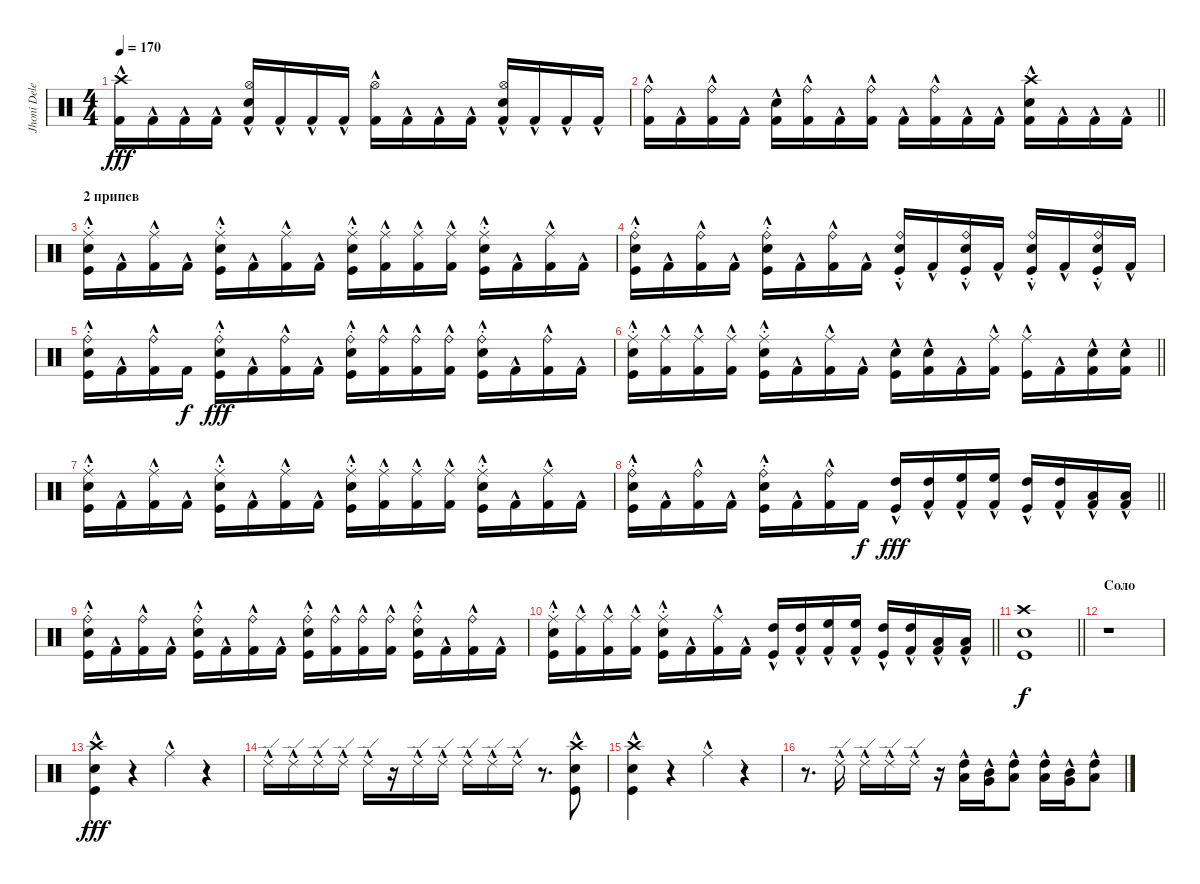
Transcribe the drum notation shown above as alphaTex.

\track ("Jhoni Delenger" "Jhoni Dele") {instrument percussion}
\staff {score}
\articulation defaults
\ts (4 4)
\tempo 170
\clef neutral
\ks c
("Crash high (hit)" "Kick (hit) 2"{hac}).16{dy fff} "Kick (hit) 2"{hac}.16 "Kick (hit) 2"{hac}.16 "Kick (hit) 2"{hac}.16 ("Hi-Hat (open)" "Snare (hit) 2" "Kick (hit) 2"{hac}).16 "Kick (hit) 2"{hac}.16 "Kick (hit) 2"{hac}.16 "Kick (hit) 2"{hac}.16 ("Hi-Hat (open)" "Kick (hit) 2"{hac}).16 "Kick (hit) 2"{hac}.16 "Kick (hit) 2"{hac}.16 "Kick (hit) 2"{hac}.16 ("Hi-Hat (open)" "Snare (hit) 2" "Kick (hit) 2"{hac}).16 "Kick (hit) 2"{hac}.16 "Kick (hit) 2"{hac}.16 "Kick (hit) 2"{hac}.16 |
\barLineRight lightlight
("Kick (hit) 2"{hac} "Ride (bell)"{hac}).16 "Kick (hit) 2"{hac}.16 ("Kick (hit) 2"{hac} "Ride (bell)"{hac}).16 "Kick (hit) 2"{hac}.16 ("Snare (hit) 2" "Kick (hit) 2"{hac}).16 ("Ride (bell)"{hac} "Kick (hit) 2"{hac}).16 "Kick (hit) 2"{hac}.16 ("Ride (bell)"{hac} "Kick (hit) 2"{hac}).16 "Kick (hit) 2"{hac}.16 ("Ride (bell)"{hac} "Kick (hit) 2"{hac}).16 "Kick (hit) 2"{hac}.16 "Kick (hit) 2"{hac}.16 ("Crash high (hit)" "Snare (hit) 2" "Kick (hit) 2"{hac}).16 "Kick (hit) 2"{hac}.16 "Kick (hit) 2"{hac}.16 "Kick (hit) 2"{hac}.16 |
\section ("" "2 припев")
("Snare (hit) 2"{st} "Ride (middle)"{hac} "Kick (hit)"{hac}).16 "Kick (hit) 2"{hac}.16 ("Kick (hit) 2"{hac} "Ride (middle)"{hac}).16 "Kick (hit) 2"{hac}.16 ("Snare (hit) 2"{st} "Ride (middle)"{hac} "Kick (hit)"{hac}).16 "Kick (hit) 2"{hac}.16 ("Kick (hit) 2"{hac} "Ride (middle)"{hac}).16 "Kick (hit) 2"{hac}.16 ("Snare (hit) 2"{st} "Ride (middle)"{hac} "Kick (hit)"{hac}).16 ("Kick (hit) 2"{hac} "Ride (middle)"{hac}).16 ("Kick (hit) 2"{hac} "Ride (middle)"{hac}).16 ("Kick (hit) 2"{hac} "Ride (middle)"{hac}).16 ("Snare (hit) 2"{st} "Ride (middle)"{hac} "Kick (hit)"{hac}).16 "Kick (hit) 2"{hac}.16 ("Kick (hit) 2"{hac} "Ride (middle)"{hac}).16 "Kick (hit) 2"{hac}.16 |
("Snare (hit) 2"{st} "Ride (bell)"{hac} "Kick (hit)"{hac}).16 "Kick (hit) 2"{hac}.16 ("Kick (hit) 2"{hac} "Ride (bell)"{hac}).16 "Kick (hit) 2"{hac}.16 ("Snare (hit) 2"{st} "Ride (bell)"{hac} "Kick (hit)"{hac}).16 "Kick (hit) 2"{hac}.16 ("Kick (hit) 2"{hac} "Ride (bell)"{hac}).16 "Kick (hit) 2"{hac}.16 ("Snare (hit) 2"{st} "Ride (bell)"{hac} "Kick (hit)"{hac}).16 "Kick (hit) 2"{hac}.16 ("Snare (hit) 2"{st} "Ride (bell)"{hac} "Kick (hit)"{hac}).16 "Kick (hit) 2"{hac}.16 ("Snare (hit) 2"{st} "Ride (bell)"{hac} "Kick (hit)"{hac}).16 "Kick (hit) 2"{hac}.16 ("Snare (hit) 2"{st} "Ride (bell)"{hac} "Kick (hit)"{hac}).16 "Kick (hit) 2"{hac}.16 |
("Snare (hit) 2"{st} "Ride (bell)"{hac} "Kick (hit)"{hac}).16 "Kick (hit) 2"{hac}.16 ("Kick (hit) 2"{hac} "Ride (bell)"{hac}).16 "Kick (hit) 2".16{dy f} ("Snare (hit) 2"{st} "Ride (bell)"{hac} "Kick (hit)"{hac}).16{dy fff} "Kick (hit) 2"{hac}.16 ("Kick (hit) 2"{hac} "Ride (bell)"{hac}).16 "Kick (hit) 2"{hac}.16 ("Snare (hit) 2"{st} "Ride (bell)"{hac} "Kick (hit)"{hac}).16 ("Kick (hit) 2"{hac} "Ride (bell)"{hac}).16 ("Kick (hit) 2"{hac} "Ride (bell)"{hac}).16 ("Kick (hit) 2"{hac} "Ride (bell)"{hac}).16 ("Snare (hit) 2"{st} "Ride (bell)"{hac} "Kick (hit)"{hac}).16 "Kick (hit) 2"{hac}.16 ("Kick (hit) 2"{hac} "Ride (bell)"{hac}).16 "Kick (hit) 2"{hac}.16 |
\barLineRight lightlight
("Snare (hit) 2"{st} "Ride (middle)"{hac} "Kick (hit)"{hac}).16 ("Kick (hit) 2"{hac} "Ride (middle)"{hac}).16 ("Kick (hit) 2"{hac} "Ride (middle)"{hac}).16 ("Kick (hit) 2"{hac} "Ride (middle)"{hac}).16 ("Snare (hit) 2"{st} "Ride (middle)"{hac} "Kick (hit)"{hac}).16 "Kick (hit) 2"{hac}.16 ("Kick (hit) 2"{hac} "Ride (middle)"{hac}).16 "Kick (hit) 2"{hac}.16 ("Snare (hit) 2" "Kick (hit)"{hac}).16 ("Kick (hit) 2"{hac} "Snare (hit) 2").16 "Kick (hit) 2"{hac}.16 ("Kick (hit) 2"{hac} "Ride (middle)"{hac}).16 ("Ride (middle)"{hac} "Kick (hit)"{hac}).16 "Kick (hit) 2"{hac}.16 ("Kick (hit) 2"{hac} "Snare (hit) 2").16 ("Kick (hit) 2"{hac} "Snare (hit) 2").16 |
("Snare (hit) 2"{st} "Ride (middle)"{hac} "Kick (hit)"{hac}).16 "Kick (hit) 2"{hac}.16 ("Kick (hit) 2"{hac} "Ride (middle)"{hac}).16 "Kick (hit) 2"{hac}.16 ("Snare (hit) 2"{st} "Ride (middle)"{hac} "Kick (hit)"{hac}).16 "Kick (hit) 2"{hac}.16 ("Kick (hit) 2"{hac} "Ride (middle)"{hac}).16 "Kick (hit) 2"{hac}.16 ("Snare (hit) 2"{st} "Ride (middle)"{hac} "Kick (hit)"{hac}).16 ("Kick (hit) 2"{hac} "Ride (middle)"{hac}).16 ("Kick (hit) 2"{hac} "Ride (middle)"{hac}).16 ("Kick (hit) 2"{hac} "Ride (middle)"{hac}).16 ("Snare (hit) 2"{st} "Ride (middle)"{hac} "Kick (hit)"{hac}).16 "Kick (hit) 2"{hac}.16 ("Kick (hit) 2"{hac} "Ride (middle)"{hac}).16 "Kick (hit) 2"{hac}.16 |
\barLineRight lightlight
("Snare (hit) 2"{st} "Ride (bell)"{hac} "Kick (hit)"{hac}).16 "Kick (hit) 2"{hac}.16 ("Kick (hit) 2"{hac} "Ride (bell)"{hac}).16 "Kick (hit) 2"{hac}.16 ("Snare (hit) 2"{st} "Ride (bell)"{hac} "Kick (hit)"{hac}).16 "Kick (hit) 2"{hac}.16 ("Kick (hit) 2"{hac} "Ride (bell)"{hac}).16 "Kick (hit) 2".16{dy f} ("High Tom (hit)"{hac} "Kick (hit)"{hac}).16{dy fff} ("Kick (hit) 2"{hac} "High Tom (hit)"{hac}).16 ("Kick (hit) 2"{hac} "High Floor Tom (hit)"{hac}).16 ("Kick (hit) 2"{hac} "High Floor Tom (hit)"{hac}).16 ("High Tom (hit)"{hac} "Kick (hit)"{hac}).16 ("Kick (hit) 2"{hac} "High Tom (hit)"{hac}).16 ("Kick (hit) 2"{hac} "Low Tom (hit)"{hac}).16 ("Kick (hit) 2"{hac} "Low Tom (hit)"{hac}).16 |
("Snare (hit) 2"{st} "Ride (bell)"{hac} "Kick (hit)"{hac}).16 "Kick (hit) 2"{hac}.16 ("Kick (hit) 2"{hac} "Ride (bell)"{hac}).16 "Kick (hit) 2"{hac}.16 ("Snare (hit) 2"{st} "Ride (bell)"{hac} "Kick (hit)"{hac}).16 "Kick (hit) 2"{hac}.16 ("Kick (hit) 2"{hac} "Ride (bell)"{hac}).16 "Kick (hit) 2"{hac}.16 ("Snare (hit) 2"{st} "Ride (bell)"{hac} "Kick (hit)"{hac}).16 ("Kick (hit) 2"{hac} "Ride (bell)"{hac}).16 ("Kick (hit) 2"{hac} "Ride (bell)"{hac}).16 ("Kick (hit) 2"{hac} "Ride (bell)"{hac}).16 ("Snare (hit) 2"{st} "Ride (bell)"{hac} "Kick (hit)"{hac}).16 "Kick (hit) 2"{hac}.16 ("Kick (hit) 2"{hac} "Ride (bell)"{hac}).16 "Kick (hit) 2"{hac}.16 |
\barLineRight lightlight
("Snare (hit) 2"{st} "Ride (middle)"{hac} "Kick (hit)"{hac}).16 ("Kick (hit) 2"{hac} "Ride (middle)"{hac}).16 ("Kick (hit) 2"{hac} "Ride (middle)"{hac}).16 ("Kick (hit) 2"{hac} "Ride (middle)"{hac}).16 ("Snare (hit) 2"{st} "Ride (middle)"{hac} "Kick (hit)"{hac}).16 "Kick (hit) 2"{hac}.16 ("Kick (hit) 2"{hac} "Ride (middle)"{hac}).16 "Kick (hit) 2"{hac}.16 ("High Tom (hit)"{hac} "Kick (hit)"{hac}).16 ("Kick (hit) 2"{hac} "High Tom (hit)"{hac}).16 ("Kick (hit) 2"{hac} "High Floor Tom (hit)"{hac}).16 ("Kick (hit) 2"{hac} "High Floor Tom (hit)"{hac}).16 ("High Tom (hit)"{hac} "Kick (hit)"{hac}).16 ("Kick (hit) 2"{hac} "High Tom (hit)"{hac}).16 ("Kick (hit) 2"{hac} "Low Tom (hit)"{hac}).16 ("Kick (hit) 2"{hac} "Low Tom (hit)"{hac}).16 |
\barLineRight lightlight
("Snare (hit) 2" "Crash high (hit)" "Kick (hit)").1{dy f} |
\section ("" "Соло")
r.1 |
("Snare (hit) 2" "Crash high (hit)" "Kick (hit)"{hac}).4{dy fff} r.4 "Ride (middle)"{hac}.4 r.4 |
"Ride (edge) 2"{hac}.16 "Ride (edge) 2"{hac}.16 "Ride (edge) 2"{hac}.16 "Ride (edge) 2"{hac}.16 "Ride (edge) 2"{hac}.16 r.16 "Ride (edge) 2"{hac}.16 "Ride (edge) 2"{hac}.16 "Ride (edge) 2"{hac}.16 "Ride (edge) 2"{hac}.16 "Ride (edge) 2"{hac}.16 r.8{d} ("Snare (hit) 2" "Crash high (hit)" "Kick (hit)"{hac}).8 |
("Snare (hit) 2" "Crash high (hit)" "Kick (hit)"{hac}).4 r.4 "Ride (middle)"{hac}.4 r.4 |
r.8{d} "Ride (edge) 2"{hac}.16 "Ride (edge) 2"{hac}.16 "Ride (edge) 2"{hac}.16 "Ride (edge) 2"{hac}.16 r.16 ("High Tom (hit)"{hac} "Low Tom (hit)"{hac}).16 ("Mid Tom (hit)"{hac} "Very Low Tom (hit)"{hac}).16 ("High Tom (hit)"{hac} "Low Tom (hit)"{hac}).8 ("High Tom (hit)"{hac} "Low Tom (hit)"{hac}).16 ("Mid Tom (hit)"{hac} "Very Low Tom (hit)"{hac}).16 ("High Tom (hit)"{hac} "Low Tom (hit)"{hac}).8
